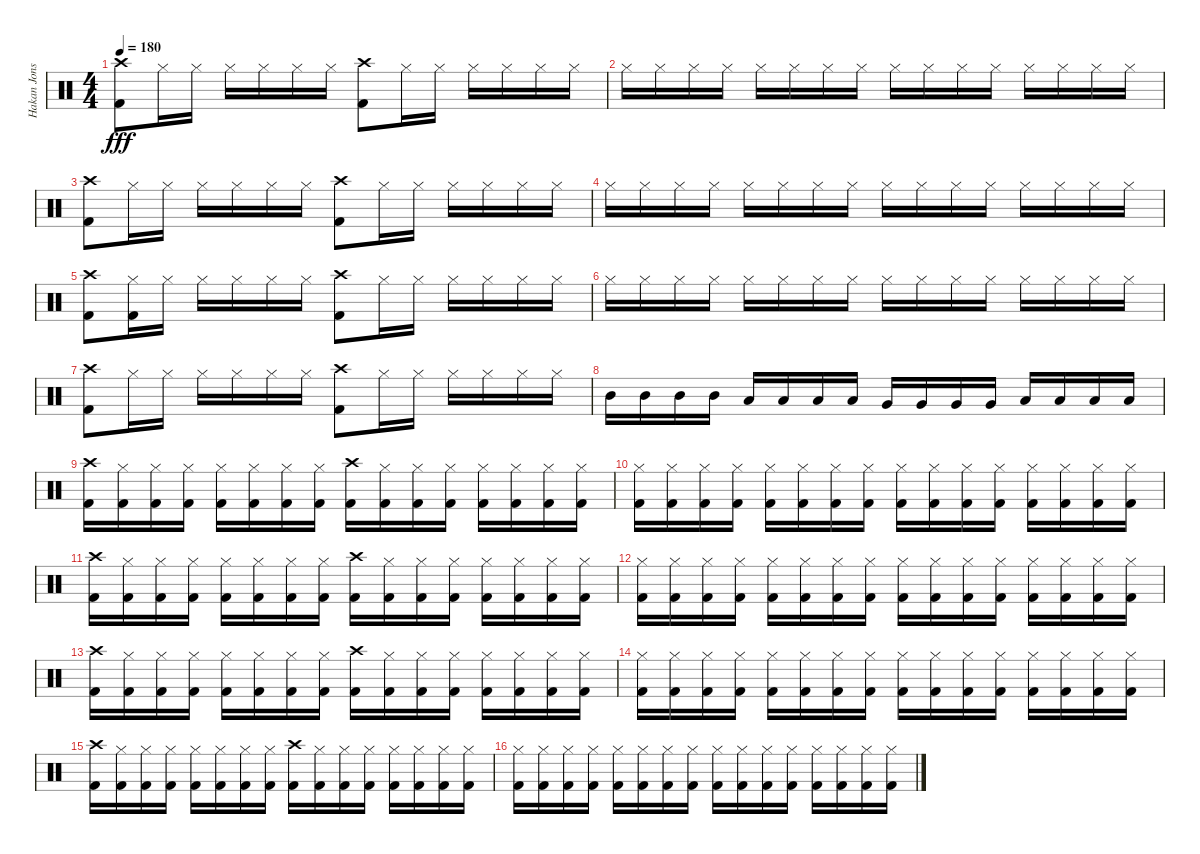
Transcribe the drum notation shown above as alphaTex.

\track ("Hakan Jonsson" "Hakan Jons") {instrument percussion}
\staff {score}
\articulation defaults
\ts (4 4)
\tempo 180
\clef neutral
\ks c
("Crash high (hit)" "Kick (hit) 2").8{dy fff} "Hi-Hat (closed)".16 "Hi-Hat (closed)".16 "Hi-Hat (closed)".16 "Hi-Hat (closed)".16 "Hi-Hat (closed)".16 "Hi-Hat (closed)".16 ("Crash high (hit)" "Kick (hit) 2").8 "Hi-Hat (closed)".16 "Hi-Hat (closed)".16 "Hi-Hat (closed)".16 "Hi-Hat (closed)".16 "Hi-Hat (closed)".16 "Hi-Hat (closed)".16 |
"Hi-Hat (closed)".16 "Hi-Hat (closed)".16 "Hi-Hat (closed)".16 "Hi-Hat (closed)".16 "Hi-Hat (closed)".16 "Hi-Hat (closed)".16 "Hi-Hat (closed)".16 "Hi-Hat (closed)".16 "Hi-Hat (closed)".16 "Hi-Hat (closed)".16 "Hi-Hat (closed)".16 "Hi-Hat (closed)".16 "Hi-Hat (closed)".16 "Hi-Hat (closed)".16 "Hi-Hat (closed)".16 "Hi-Hat (closed)".16 |
("Crash high (hit)" "Kick (hit) 2").8 "Hi-Hat (closed)".16 "Hi-Hat (closed)".16 "Hi-Hat (closed)".16 "Hi-Hat (closed)".16 "Hi-Hat (closed)".16 "Hi-Hat (closed)".16 ("Crash high (hit)" "Kick (hit) 2").8 "Hi-Hat (closed)".16 "Hi-Hat (closed)".16 "Hi-Hat (closed)".16 "Hi-Hat (closed)".16 "Hi-Hat (closed)".16 "Hi-Hat (closed)".16 |
"Hi-Hat (closed)".16 "Hi-Hat (closed)".16 "Hi-Hat (closed)".16 "Hi-Hat (closed)".16 "Hi-Hat (closed)".16 "Hi-Hat (closed)".16 "Hi-Hat (closed)".16 "Hi-Hat (closed)".16 "Hi-Hat (closed)".16 "Hi-Hat (closed)".16 "Hi-Hat (closed)".16 "Hi-Hat (closed)".16 "Hi-Hat (closed)".16 "Hi-Hat (closed)".16 "Hi-Hat (closed)".16 "Hi-Hat (closed)".16 |
("Crash high (hit)" "Kick (hit) 2").8 ("Hi-Hat (closed)" "Kick (hit) 2").16 "Hi-Hat (closed)".16 "Hi-Hat (closed)".16 "Hi-Hat (closed)".16 "Hi-Hat (closed)".16 "Hi-Hat (closed)".16 ("Crash high (hit)" "Kick (hit) 2").8 "Hi-Hat (closed)".16 "Hi-Hat (closed)".16 "Hi-Hat (closed)".16 "Hi-Hat (closed)".16 "Hi-Hat (closed)".16 "Hi-Hat (closed)".16 |
"Hi-Hat (closed)".16 "Hi-Hat (closed)".16 "Hi-Hat (closed)".16 "Hi-Hat (closed)".16 "Hi-Hat (closed)".16 "Hi-Hat (closed)".16 "Hi-Hat (closed)".16 "Hi-Hat (closed)".16 "Hi-Hat (closed)".16 "Hi-Hat (closed)".16 "Hi-Hat (closed)".16 "Hi-Hat (closed)".16 "Hi-Hat (closed)".16 "Hi-Hat (closed)".16 "Hi-Hat (closed)".16 "Hi-Hat (closed)".16 |
("Crash high (hit)" "Kick (hit) 2").8 "Hi-Hat (closed)".16 "Hi-Hat (closed)".16 "Hi-Hat (closed)".16 "Hi-Hat (closed)".16 "Hi-Hat (closed)".16 "Hi-Hat (closed)".16 ("Crash high (hit)" "Kick (hit) 2").8 "Hi-Hat (closed)".16 "Hi-Hat (closed)".16 "Hi-Hat (closed)".16 "Hi-Hat (closed)".16 "Hi-Hat (closed)".16 "Hi-Hat (closed)".16 |
"Mid Tom (hit)".16 "Mid Tom (hit)".16 "Mid Tom (hit)".16 "Mid Tom (hit)".16 "Low Tom (hit)".16 "Low Tom (hit)".16 "Low Tom (hit)".16 "Low Tom (hit)".16 "Very Low Tom (hit)".16 "Very Low Tom (hit)".16 "Very Low Tom (hit)".16 "Very Low Tom (hit)".16 "Low Floor Tom (hit)".16 "Low Floor Tom (hit)".16 "Low Floor Tom (hit)".16 "Low Floor Tom (hit)".16 |
("Crash high (hit)" "Kick (hit) 2").16 ("Hi-Hat (closed)" "Kick (hit) 2").16 ("Hi-Hat (closed)" "Kick (hit) 2").16 ("Hi-Hat (closed)" "Kick (hit) 2").16 ("Hi-Hat (closed)" "Kick (hit) 2").16 ("Hi-Hat (closed)" "Kick (hit) 2").16 ("Hi-Hat (closed)" "Kick (hit) 2").16 ("Hi-Hat (closed)" "Kick (hit) 2").16 ("Crash high (hit)" "Kick (hit) 2").16 ("Hi-Hat (closed)" "Kick (hit) 2").16 ("Hi-Hat (closed)" "Kick (hit) 2").16 ("Hi-Hat (closed)" "Kick (hit) 2").16 ("Hi-Hat (closed)" "Kick (hit) 2").16 ("Hi-Hat (closed)" "Kick (hit) 2").16 ("Hi-Hat (closed)" "Kick (hit) 2").16 ("Hi-Hat (closed)" "Kick (hit) 2").16 |
("Hi-Hat (closed)" "Kick (hit) 2").16 ("Hi-Hat (closed)" "Kick (hit) 2").16 ("Hi-Hat (closed)" "Kick (hit) 2").16 ("Hi-Hat (closed)" "Kick (hit) 2").16 ("Hi-Hat (closed)" "Kick (hit) 2").16 ("Hi-Hat (closed)" "Kick (hit) 2").16 ("Hi-Hat (closed)" "Kick (hit) 2").16 ("Hi-Hat (closed)" "Kick (hit) 2").16 ("Hi-Hat (closed)" "Kick (hit) 2").16 ("Hi-Hat (closed)" "Kick (hit) 2").16 ("Hi-Hat (closed)" "Kick (hit) 2").16 ("Hi-Hat (closed)" "Kick (hit) 2").16 ("Hi-Hat (closed)" "Kick (hit) 2").16 ("Hi-Hat (closed)" "Kick (hit) 2").16 ("Hi-Hat (closed)" "Kick (hit) 2").16 ("Hi-Hat (closed)" "Kick (hit) 2").16 |
("Crash high (hit)" "Kick (hit) 2").16 ("Hi-Hat (closed)" "Kick (hit) 2").16 ("Hi-Hat (closed)" "Kick (hit) 2").16 ("Hi-Hat (closed)" "Kick (hit) 2").16 ("Hi-Hat (closed)" "Kick (hit) 2").16 ("Hi-Hat (closed)" "Kick (hit) 2").16 ("Hi-Hat (closed)" "Kick (hit) 2").16 ("Hi-Hat (closed)" "Kick (hit) 2").16 ("Crash high (hit)" "Kick (hit) 2").16 ("Hi-Hat (closed)" "Kick (hit) 2").16 ("Hi-Hat (closed)" "Kick (hit) 2").16 ("Hi-Hat (closed)" "Kick (hit) 2").16 ("Hi-Hat (closed)" "Kick (hit) 2").16 ("Hi-Hat (closed)" "Kick (hit) 2").16 ("Hi-Hat (closed)" "Kick (hit) 2").16 ("Hi-Hat (closed)" "Kick (hit) 2").16 |
("Hi-Hat (closed)" "Kick (hit) 2").16 ("Hi-Hat (closed)" "Kick (hit) 2").16 ("Hi-Hat (closed)" "Kick (hit) 2").16 ("Hi-Hat (closed)" "Kick (hit) 2").16 ("Hi-Hat (closed)" "Kick (hit) 2").16 ("Hi-Hat (closed)" "Kick (hit) 2").16 ("Hi-Hat (closed)" "Kick (hit) 2").16 ("Hi-Hat (closed)" "Kick (hit) 2").16 ("Hi-Hat (closed)" "Kick (hit) 2").16 ("Hi-Hat (closed)" "Kick (hit) 2").16 ("Hi-Hat (closed)" "Kick (hit) 2").16 ("Hi-Hat (closed)" "Kick (hit) 2").16 ("Hi-Hat (closed)" "Kick (hit) 2").16 ("Hi-Hat (closed)" "Kick (hit) 2").16 ("Hi-Hat (closed)" "Kick (hit) 2").16 ("Hi-Hat (closed)" "Kick (hit) 2").16 |
("Crash high (hit)" "Kick (hit) 2").16 ("Hi-Hat (closed)" "Kick (hit) 2").16 ("Hi-Hat (closed)" "Kick (hit) 2").16 ("Hi-Hat (closed)" "Kick (hit) 2").16 ("Hi-Hat (closed)" "Kick (hit) 2").16 ("Hi-Hat (closed)" "Kick (hit) 2").16 ("Hi-Hat (closed)" "Kick (hit) 2").16 ("Hi-Hat (closed)" "Kick (hit) 2").16 ("Crash high (hit)" "Kick (hit) 2").16 ("Hi-Hat (closed)" "Kick (hit) 2").16 ("Hi-Hat (closed)" "Kick (hit) 2").16 ("Hi-Hat (closed)" "Kick (hit) 2").16 ("Hi-Hat (closed)" "Kick (hit) 2").16 ("Hi-Hat (closed)" "Kick (hit) 2").16 ("Hi-Hat (closed)" "Kick (hit) 2").16 ("Hi-Hat (closed)" "Kick (hit) 2").16 |
("Hi-Hat (closed)" "Kick (hit) 2").16 ("Hi-Hat (closed)" "Kick (hit) 2").16 ("Hi-Hat (closed)" "Kick (hit) 2").16 ("Hi-Hat (closed)" "Kick (hit) 2").16 ("Hi-Hat (closed)" "Kick (hit) 2").16 ("Hi-Hat (closed)" "Kick (hit) 2").16 ("Hi-Hat (closed)" "Kick (hit) 2").16 ("Hi-Hat (closed)" "Kick (hit) 2").16 ("Hi-Hat (closed)" "Kick (hit) 2").16 ("Hi-Hat (closed)" "Kick (hit) 2").16 ("Hi-Hat (closed)" "Kick (hit) 2").16 ("Hi-Hat (closed)" "Kick (hit) 2").16 ("Hi-Hat (closed)" "Kick (hit) 2").16 ("Hi-Hat (closed)" "Kick (hit) 2").16 ("Hi-Hat (closed)" "Kick (hit) 2").16 ("Hi-Hat (closed)" "Kick (hit) 2").16 |
("Crash high (hit)" "Kick (hit) 2").16 ("Hi-Hat (closed)" "Kick (hit) 2").16 ("Hi-Hat (closed)" "Kick (hit) 2").16 ("Hi-Hat (closed)" "Kick (hit) 2").16 ("Hi-Hat (closed)" "Kick (hit) 2").16 ("Hi-Hat (closed)" "Kick (hit) 2").16 ("Hi-Hat (closed)" "Kick (hit) 2").16 ("Hi-Hat (closed)" "Kick (hit) 2").16 ("Crash high (hit)" "Kick (hit) 2").16 ("Hi-Hat (closed)" "Kick (hit) 2").16 ("Hi-Hat (closed)" "Kick (hit) 2").16 ("Hi-Hat (closed)" "Kick (hit) 2").16 ("Hi-Hat (closed)" "Kick (hit) 2").16 ("Hi-Hat (closed)" "Kick (hit) 2").16 ("Hi-Hat (closed)" "Kick (hit) 2").16 ("Hi-Hat (closed)" "Kick (hit) 2").16 |
("Hi-Hat (closed)" "Kick (hit) 2").16 ("Hi-Hat (closed)" "Kick (hit) 2").16 ("Hi-Hat (closed)" "Kick (hit) 2").16 ("Hi-Hat (closed)" "Kick (hit) 2").16 ("Hi-Hat (closed)" "Kick (hit) 2").16 ("Hi-Hat (closed)" "Kick (hit) 2").16 ("Hi-Hat (closed)" "Kick (hit) 2").16 ("Hi-Hat (closed)" "Kick (hit) 2").16 ("Hi-Hat (closed)" "Kick (hit) 2").16 ("Hi-Hat (closed)" "Kick (hit) 2").16 ("Hi-Hat (closed)" "Kick (hit) 2").16 ("Hi-Hat (closed)" "Kick (hit) 2").16 ("Hi-Hat (closed)" "Kick (hit) 2").16 ("Hi-Hat (closed)" "Kick (hit) 2").16 ("Hi-Hat (closed)" "Kick (hit) 2").16 ("Hi-Hat (closed)" "Kick (hit) 2").16
